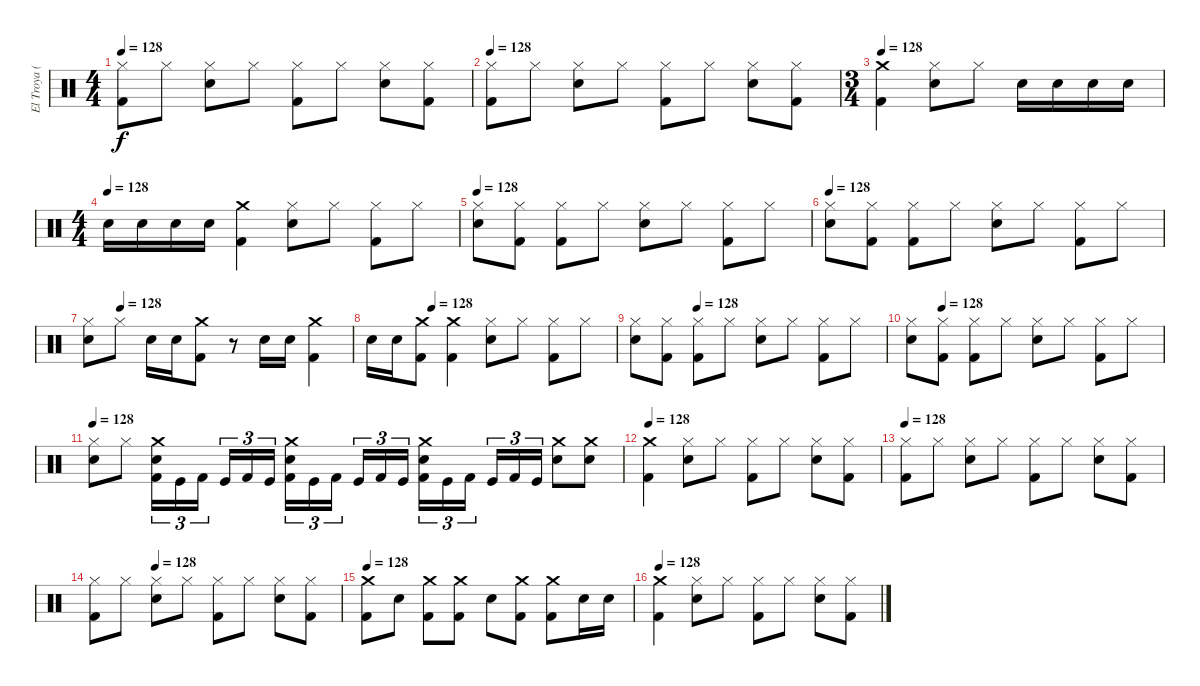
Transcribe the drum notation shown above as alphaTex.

\track ("El Troya (premio)" "El Troya (") {instrument percussion}
\staff {score}
\articulation defaults
\ts (4 4)
\tempo 128
\clef neutral
\ks c
("Hi-Hat (closed)" "Kick (hit) 2").8{dy f} "Hi-Hat (closed)".8 ("Snare (hit) 2" "Hi-Hat (closed)").8 "Hi-Hat (closed)".8 ("Hi-Hat (closed)" "Kick (hit) 2").8 "Hi-Hat (closed)".8 ("Snare (hit) 2" "Hi-Hat (closed)").8 ("Kick (hit) 2" "Hi-Hat (closed)").8 |
\tempo 128
("Hi-Hat (closed)" "Kick (hit) 2").8 "Hi-Hat (closed)".8 ("Snare (hit) 2" "Hi-Hat (closed)").8 "Hi-Hat (closed)".8 ("Hi-Hat (closed)" "Kick (hit) 2").8 "Hi-Hat (closed)".8 ("Snare (hit) 2" "Hi-Hat (closed)").8 ("Kick (hit) 2" "Hi-Hat (closed)").8 |
\ts (3 4)
\tempo 128
("Kick (hit) 2" "Crash medium (hit)").4 ("Snare (hit) 2" "Hi-Hat (closed)").8 "Hi-Hat (closed)".8 "Snare (hit) 2".16 "Snare (hit) 2".16 "Snare (hit) 2".16 "Snare (hit) 2".16 |
\ts (4 4)
\tempo (128)
"Snare (hit) 2".16 "Snare (hit) 2".16 "Snare (hit) 2".16 "Snare (hit) 2".16 ("Kick (hit) 2" "Crash medium (hit)").4 ("Snare (hit) 2" "Hi-Hat (closed)").8 "Hi-Hat (closed)".8 ("Kick (hit) 2" "Hi-Hat (closed)").8 "Hi-Hat (closed)".8 |
\tempo 128
("Hi-Hat (closed)" "Snare (hit) 2").8 ("Hi-Hat (closed)" "Kick (hit) 2").8 ("Hi-Hat (closed)" "Kick (hit) 2").8 "Hi-Hat (closed)".8 ("Snare (hit) 2" "Hi-Hat (closed)").8 "Hi-Hat (closed)".8 ("Hi-Hat (closed)" "Kick (hit) 2").8 "Hi-Hat (closed)".8 |
\tempo 128
("Hi-Hat (closed)" "Snare (hit) 2").8 ("Hi-Hat (closed)" "Kick (hit) 2").8 ("Hi-Hat (closed)" "Kick (hit) 2").8 "Hi-Hat (closed)".8 ("Snare (hit) 2" "Hi-Hat (closed)").8 "Hi-Hat (closed)".8 ("Hi-Hat (closed)" "Kick (hit) 2").8 "Hi-Hat (closed)".8 |
\tempo (128 0.125)
("Hi-Hat (closed)" "Snare (hit) 2").8 "Hi-Hat (closed)".8 "Snare (hit) 2".16 "Snare (hit) 2".16 ("Kick (hit) 2" "Crash medium (hit)").8 r.8 "Snare (hit) 2".16 "Snare (hit) 2".16 ("Kick (hit) 2" "Crash medium (hit)").4 |
\tempo (128 0.25)
"Snare (hit) 2".16 "Snare (hit) 2".16 ("Kick (hit) 2" "Crash medium (hit)").8 ("Kick (hit) 2" "Crash medium (hit)").4 ("Hi-Hat (closed)" "Snare (hit) 2").8 "Hi-Hat (closed)".8 ("Hi-Hat (closed)" "Kick (hit) 2").8 "Hi-Hat (closed)".8 |
\tempo (128 0.25)
("Hi-Hat (closed)" "Snare (hit) 2").8 ("Hi-Hat (closed)" "Kick (hit) 2").8 ("Hi-Hat (closed)" "Kick (hit) 2").8 "Hi-Hat (closed)".8 ("Snare (hit) 2" "Hi-Hat (closed)").8 "Hi-Hat (closed)".8 ("Hi-Hat (closed)" "Kick (hit) 2").8 "Hi-Hat (closed)".8 |
\tempo (128 0.125)
("Hi-Hat (closed)" "Snare (hit) 2").8 ("Hi-Hat (closed)" "Kick (hit) 2").8 ("Hi-Hat (closed)" "Kick (hit) 2").8 "Hi-Hat (closed)".8 ("Snare (hit) 2" "Hi-Hat (closed)").8 "Hi-Hat (closed)".8 ("Hi-Hat (closed)" "Kick (hit) 2").8 "Hi-Hat (closed)".8 |
\tempo 128
("Snare (hit) 2" "Hi-Hat (closed)").8 "Hi-Hat (closed)".8 ("Snare (hit) 2" "Crash medium (hit)" "Kick (hit) 2").16{tu (3 2)} "Kick (hit)".16{tu (3 2)} "Kick (hit) 2".16{tu (3 2)} "Kick (hit)".16{tu (3 2)} "Kick (hit) 2".16{tu (3 2)} "Kick (hit)".16{tu (3 2)} ("Crash medium (hit)" "Snare (hit) 2" "Kick (hit) 2").16{tu (3 2)} "Kick (hit)".16{tu (3 2)} "Kick (hit) 2".16{tu (3 2)} "Kick (hit)".16{tu (3 2)} "Kick (hit) 2".16{tu (3 2)} "Kick (hit)".16{tu (3 2)} ("Crash medium (hit)" "Snare (hit) 2" "Kick (hit) 2").16{tu (3 2)} "Kick (hit)".16{tu (3 2)} "Kick (hit) 2".16{tu (3 2)} "Kick (hit)".16{tu (3 2)} "Kick (hit) 2".16{tu (3 2)} "Kick (hit)".16{tu (3 2)} ("Crash medium (hit)" "Snare (hit) 2").8 ("Crash medium (hit)" "Snare (hit) 2").8 |
\tempo 128
("Kick (hit) 2" "Crash medium (hit)").4 ("Snare (hit) 2" "Hi-Hat (closed)").8 "Hi-Hat (closed)".8 ("Hi-Hat (closed)" "Kick (hit) 2").8 "Hi-Hat (closed)".8 ("Snare (hit) 2" "Hi-Hat (closed)").8 ("Kick (hit) 2" "Hi-Hat (closed)").8 |
\tempo 128
("Hi-Hat (closed)" "Kick (hit) 2").8 "Hi-Hat (closed)".8 ("Snare (hit) 2" "Hi-Hat (closed)").8 "Hi-Hat (closed)".8 ("Hi-Hat (closed)" "Kick (hit) 2").8 "Hi-Hat (closed)".8 ("Snare (hit) 2" "Hi-Hat (closed)").8 ("Kick (hit) 2" "Hi-Hat (closed)").8 |
\tempo (128 0.25)
("Hi-Hat (closed)" "Kick (hit) 2").8 "Hi-Hat (closed)".8 ("Snare (hit) 2" "Hi-Hat (closed)").8 "Hi-Hat (closed)".8 ("Hi-Hat (closed)" "Kick (hit) 2").8 "Hi-Hat (closed)".8 ("Snare (hit) 2" "Hi-Hat (closed)").8 ("Kick (hit) 2" "Hi-Hat (closed)").8 |
\tempo 128
("Crash medium (hit)" "Kick (hit) 2").8 "Snare (hit) 2".8 ("Kick (hit) 2" "Crash medium (hit)").8 ("Kick (hit) 2" "Crash medium (hit)").8 "Snare (hit) 2".8 ("Crash medium (hit)" "Kick (hit) 2").8 ("Crash medium (hit)" "Kick (hit) 2").8 "Snare (hit) 2".16 "Snare (hit) 2".16 |
\tempo 128
("Kick (hit) 2" "Crash medium (hit)").4 ("Snare (hit) 2" "Hi-Hat (closed)").8 "Hi-Hat (closed)".8 ("Hi-Hat (closed)" "Kick (hit) 2").8 "Hi-Hat (closed)".8 ("Snare (hit) 2" "Hi-Hat (closed)").8 ("Kick (hit) 2" "Hi-Hat (closed)").8
